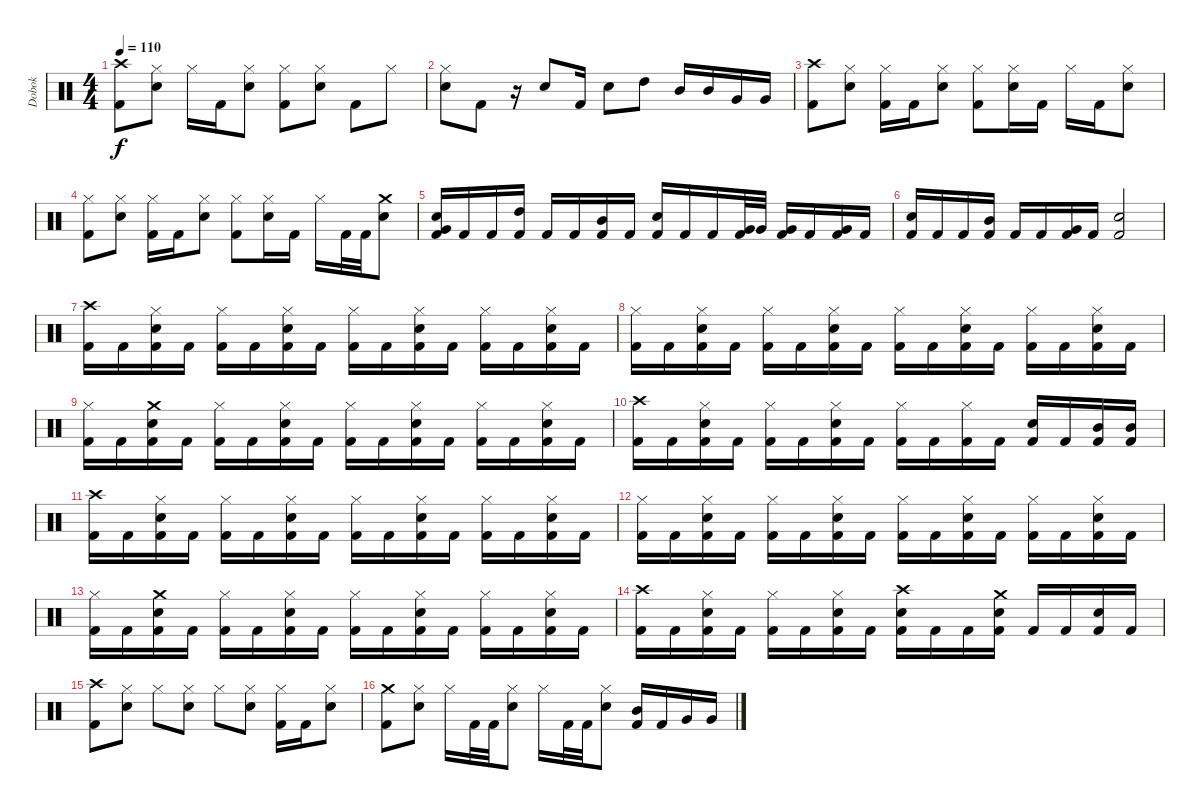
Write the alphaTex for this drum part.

\track ("Dobok" "Dobok") {instrument percussion}
\staff {score}
\articulation defaults
\ts (4 4)
\tempo 110
\clef neutral
\ks c
("Crash high (hit)" "Kick (hit) 2").8{dy f} ("Hi-Hat (closed)" "Snare (hit) 2").8 "Hi-Hat (closed)".16 "Kick (hit) 2".16 ("Hi-Hat (closed)" "Snare (hit) 2").8 ("Hi-Hat (closed)" "Kick (hit) 2").8 ("Hi-Hat (closed)" "Snare (hit) 2").8 "Kick (hit) 2".8 "Hi-Hat (closed)".8 |
("Hi-Hat (closed)" "Snare (hit) 2").8 "Kick (hit) 2".8 r.16 "Snare (hit) 2".8 "Kick (hit) 2".16 "Snare (hit) 2".8 "High Tom (hit)".8 "Mid Tom (hit)".16 "Mid Tom (hit)".16 "Very Low Tom (hit)".16 "Very Low Tom (hit)".16 |
("Crash high (hit)" "Kick (hit) 2").8 ("Hi-Hat (closed)" "Snare (hit) 2").8 ("Hi-Hat (closed)" "Kick (hit) 2").16 "Kick (hit) 2".16 ("Hi-Hat (closed)" "Snare (hit) 2").8 ("Hi-Hat (closed)" "Kick (hit) 2").8 ("Hi-Hat (closed)" "Snare (hit) 2").16 "Kick (hit) 2".16 "Hi-Hat (closed)".16 "Kick (hit) 2".16 ("Hi-Hat (closed)" "Snare (hit) 2").8 |
("Hi-Hat (closed)" "Kick (hit) 2").8 ("Hi-Hat (closed)" "Snare (hit) 2").8 ("Hi-Hat (closed)" "Kick (hit) 2").16 "Kick (hit) 2".16 ("Hi-Hat (closed)" "Snare (hit) 2").8 ("Hi-Hat (closed)" "Kick (hit) 2").8 ("Hi-Hat (closed)" "Snare (hit) 2").16 "Kick (hit) 2".16 "Hi-Hat (closed)".16 "Kick (hit) 2".32 "Kick (hit) 2".32 ("Crash medium (hit)" "Snare (hit) 2").8 |
("Snare (hit) 2" "Very Low Tom (hit)" "Kick (hit) 2").16 "Kick (hit) 2".16 "Kick (hit) 2".16 ("High Tom (hit)" "Kick (hit) 2").16 "Kick (hit) 2".16 "Kick (hit) 2".16 ("Mid Tom (hit)" "Kick (hit) 2").16 "Kick (hit) 2".16 ("Snare (hit) 2" "Kick (hit) 2").16 "Kick (hit) 2".16 "Kick (hit) 2".16 ("Very Low Tom (hit)" "Kick (hit) 2").32 "Very Low Tom (hit)".32 ("Very Low Tom (hit)" "Kick (hit) 2").16 "Kick (hit) 2".16 ("Very Low Tom (hit)" "Kick (hit) 2").16 "Kick (hit) 2".16 |
("Snare (hit) 2" "Kick (hit) 2").16 "Kick (hit) 2".16 "Kick (hit) 2".16 ("Mid Tom (hit)" "Kick (hit) 2").16 "Kick (hit) 2".16 "Kick (hit) 2".16 ("Very Low Tom (hit)" "Kick (hit) 2").16 "Kick (hit) 2".16 ("Snare (hit) 2" "Kick (hit) 2").2 |
("Crash high (hit)" "Kick (hit) 2").16 "Kick (hit) 2".16 ("Hi-Hat (closed)" "Snare (hit) 2" "Kick (hit) 2").16 "Kick (hit) 2".16 ("Hi-Hat (closed)" "Kick (hit) 2").16 "Kick (hit) 2".16 ("Hi-Hat (closed)" "Snare (hit) 2" "Kick (hit) 2").16 "Kick (hit) 2".16 ("Hi-Hat (closed)" "Kick (hit) 2").16 "Kick (hit) 2".16 ("Hi-Hat (closed)" "Snare (hit) 2" "Kick (hit) 2").16 "Kick (hit) 2".16 ("Hi-Hat (closed)" "Kick (hit) 2").16 "Kick (hit) 2".16 ("Hi-Hat (closed)" "Snare (hit) 2" "Kick (hit) 2").16 "Kick (hit) 2".16 |
("Hi-Hat (closed)" "Kick (hit) 2").16 "Kick (hit) 2".16 ("Hi-Hat (closed)" "Snare (hit) 2" "Kick (hit) 2").16 "Kick (hit) 2".16 ("Hi-Hat (closed)" "Kick (hit) 2").16 "Kick (hit) 2".16 ("Hi-Hat (closed)" "Snare (hit) 2" "Kick (hit) 2").16 "Kick (hit) 2".16 ("Hi-Hat (closed)" "Kick (hit) 2").16 "Kick (hit) 2".16 ("Hi-Hat (closed)" "Snare (hit) 2" "Kick (hit) 2").16 "Kick (hit) 2".16 ("Hi-Hat (closed)" "Kick (hit) 2").16 "Kick (hit) 2".16 ("Hi-Hat (closed)" "Snare (hit) 2" "Kick (hit) 2").16 "Kick (hit) 2".16 |
("Hi-Hat (closed)" "Kick (hit) 2").16 "Kick (hit) 2".16 ("Crash medium (hit)" "Snare (hit) 2" "Kick (hit) 2").16 "Kick (hit) 2".16 ("Hi-Hat (closed)" "Kick (hit) 2").16 "Kick (hit) 2".16 ("Hi-Hat (closed)" "Snare (hit) 2" "Kick (hit) 2").16 "Kick (hit) 2".16 ("Hi-Hat (closed)" "Kick (hit) 2").16 "Kick (hit) 2".16 ("Hi-Hat (closed)" "Snare (hit) 2" "Kick (hit) 2").16 "Kick (hit) 2".16 ("Hi-Hat (closed)" "Kick (hit) 2").16 "Kick (hit) 2".16 ("Hi-Hat (closed)" "Snare (hit) 2" "Kick (hit) 2").16 "Kick (hit) 2".16 |
("Crash high (hit)" "Kick (hit) 2").16 "Kick (hit) 2".16 ("Hi-Hat (closed)" "Snare (hit) 2" "Kick (hit) 2").16 "Kick (hit) 2".16 ("Hi-Hat (closed)" "Kick (hit) 2").16 "Kick (hit) 2".16 ("Hi-Hat (closed)" "Snare (hit) 2" "Kick (hit) 2").16 "Kick (hit) 2".16 ("Hi-Hat (closed)" "Kick (hit) 2").16 "Kick (hit) 2".16 ("Hi-Hat (closed)" "Kick (hit) 2").16 "Kick (hit) 2".16 ("Snare (hit) 2" "Kick (hit) 2").16 "Kick (hit) 2".16 ("Mid Tom (hit)" "Kick (hit) 2").16 ("Mid Tom (hit)" "Kick (hit) 2").16 |
("Crash high (hit)" "Kick (hit) 2").16 "Kick (hit) 2".16 ("Hi-Hat (closed)" "Snare (hit) 2" "Kick (hit) 2").16 "Kick (hit) 2".16 ("Hi-Hat (closed)" "Kick (hit) 2").16 "Kick (hit) 2".16 ("Hi-Hat (closed)" "Snare (hit) 2" "Kick (hit) 2").16 "Kick (hit) 2".16 ("Hi-Hat (closed)" "Kick (hit) 2").16 "Kick (hit) 2".16 ("Hi-Hat (closed)" "Snare (hit) 2" "Kick (hit) 2").16 "Kick (hit) 2".16 ("Hi-Hat (closed)" "Kick (hit) 2").16 "Kick (hit) 2".16 ("Hi-Hat (closed)" "Snare (hit) 2" "Kick (hit) 2").16 "Kick (hit) 2".16 |
("Hi-Hat (closed)" "Kick (hit) 2").16 "Kick (hit) 2".16 ("Hi-Hat (closed)" "Snare (hit) 2" "Kick (hit) 2").16 "Kick (hit) 2".16 ("Hi-Hat (closed)" "Kick (hit) 2").16 "Kick (hit) 2".16 ("Hi-Hat (closed)" "Snare (hit) 2" "Kick (hit) 2").16 "Kick (hit) 2".16 ("Hi-Hat (closed)" "Kick (hit) 2").16 "Kick (hit) 2".16 ("Hi-Hat (closed)" "Snare (hit) 2" "Kick (hit) 2").16 "Kick (hit) 2".16 ("Hi-Hat (closed)" "Kick (hit) 2").16 "Kick (hit) 2".16 ("Hi-Hat (closed)" "Snare (hit) 2" "Kick (hit) 2").16 "Kick (hit) 2".16 |
("Hi-Hat (closed)" "Kick (hit) 2").16 "Kick (hit) 2".16 ("Crash medium (hit)" "Snare (hit) 2" "Kick (hit) 2").16 "Kick (hit) 2".16 ("Hi-Hat (closed)" "Kick (hit) 2").16 "Kick (hit) 2".16 ("Hi-Hat (closed)" "Snare (hit) 2" "Kick (hit) 2").16 "Kick (hit) 2".16 ("Hi-Hat (closed)" "Kick (hit) 2").16 "Kick (hit) 2".16 ("Hi-Hat (closed)" "Snare (hit) 2" "Kick (hit) 2").16 "Kick (hit) 2".16 ("Hi-Hat (closed)" "Kick (hit) 2").16 "Kick (hit) 2".16 ("Hi-Hat (closed)" "Snare (hit) 2" "Kick (hit) 2").16 "Kick (hit) 2".16 |
("Crash high (hit)" "Kick (hit) 2").16 "Kick (hit) 2".16 ("Hi-Hat (closed)" "Snare (hit) 2" "Kick (hit) 2").16 "Kick (hit) 2".16 ("Hi-Hat (closed)" "Kick (hit) 2").16 "Kick (hit) 2".16 ("Hi-Hat (closed)" "Snare (hit) 2" "Kick (hit) 2").16 "Kick (hit) 2".16 ("Crash high (hit)" "Snare (hit) 2" "Kick (hit) 2").16 "Kick (hit) 2".16 "Kick (hit) 2".16 ("Crash medium (hit)" "Snare (hit) 2" "Kick (hit) 2").16 "Kick (hit) 2".16 "Kick (hit) 2".16 ("Snare (hit) 2" "Kick (hit) 2").16 "Kick (hit) 2".16 |
("Crash high (hit)" "Kick (hit) 2").8 ("Hi-Hat (closed)" "Snare (hit) 2").8 "Hi-Hat (closed)".8 ("Hi-Hat (closed)" "Snare (hit) 2").8 "Hi-Hat (closed)".8 ("Hi-Hat (closed)" "Snare (hit) 2").8 ("Hi-Hat (closed)" "Kick (hit) 2").16 "Kick (hit) 2".16 ("Hi-Hat (closed)" "Snare (hit) 2").8 |
("Crash medium (hit)" "Kick (hit) 2").8 ("Hi-Hat (closed)" "Snare (hit) 2").8 "Hi-Hat (closed)".16 "Kick (hit) 2".32 "Kick (hit) 2".32 ("Hi-Hat (closed)" "Snare (hit) 2").8 "Hi-Hat (closed)".16 "Kick (hit) 2".32 "Kick (hit) 2".32 ("Hi-Hat (closed)" "Snare (hit) 2").8 ("Mid Tom (hit)" "Kick (hit) 2").16 "Kick (hit) 2".16 "Very Low Tom (hit)".16 "Very Low Tom (hit)".16
